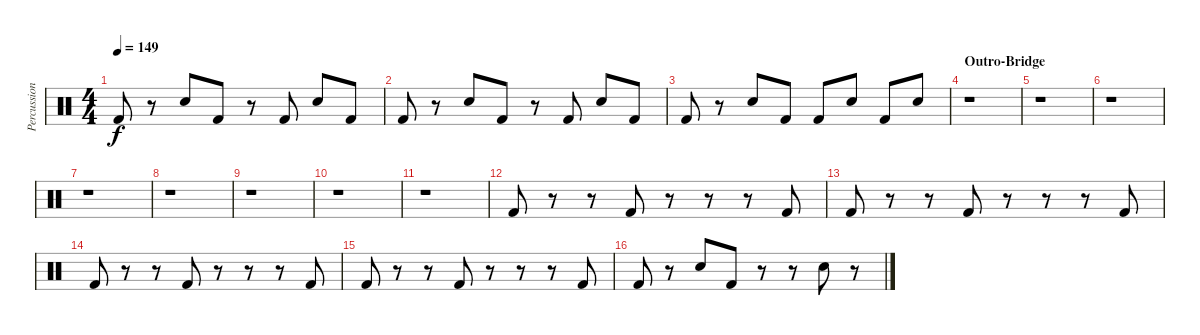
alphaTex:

\track ("Percussion" "Percussion") {instrument percussion}
\staff {score}
\articulation defaults
\ts (4 4)
\tempo 149
\clef neutral
\ks c "Kick (hit) 2".8{dy f}
r.8 "Hand Clap (hit)".8 "Kick (hit) 2".8 r.8 "Kick (hit) 2".8 "Hand Clap (hit)".8 "Kick (hit) 2".8 |
"Kick (hit) 2".8 r.8 "Hand Clap (hit)".8 "Kick (hit) 2".8 r.8 "Kick (hit) 2".8 "Hand Clap (hit)".8 "Kick (hit) 2".8 |
"Kick (hit) 2".8 r.8 "Hand Clap (hit)".8 "Kick (hit) 2".8 "Kick (hit) 2".8 "Hand Clap (hit)".8 "Kick (hit) 2".8 "Hand Clap (hit)".8 |
\section ("" "Outro-Bridge")
r.1 |
r.1 |
r.1 |
r.1 |
r.1 |
r.1 |
r.1 |
r.1 |
"Kick (hit) 2".8 r.8 r.8 "Kick (hit) 2".8 r.8 r.8 r.8 "Kick (hit) 2".8 |
"Kick (hit) 2".8 r.8 r.8 "Kick (hit) 2".8 r.8 r.8 r.8 "Kick (hit) 2".8 |
"Kick (hit) 2".8 r.8 r.8 "Kick (hit) 2".8 r.8 r.8 r.8 "Kick (hit) 2".8 |
"Kick (hit) 2".8 r.8 r.8 "Kick (hit) 2".8 r.8 r.8 r.8 "Kick (hit) 2".8 |
"Kick (hit) 2".8 r.8 "Hand Clap (hit)".8 "Kick (hit) 2".8 r.8 r.8 "Hand Clap (hit)".8 r.8
